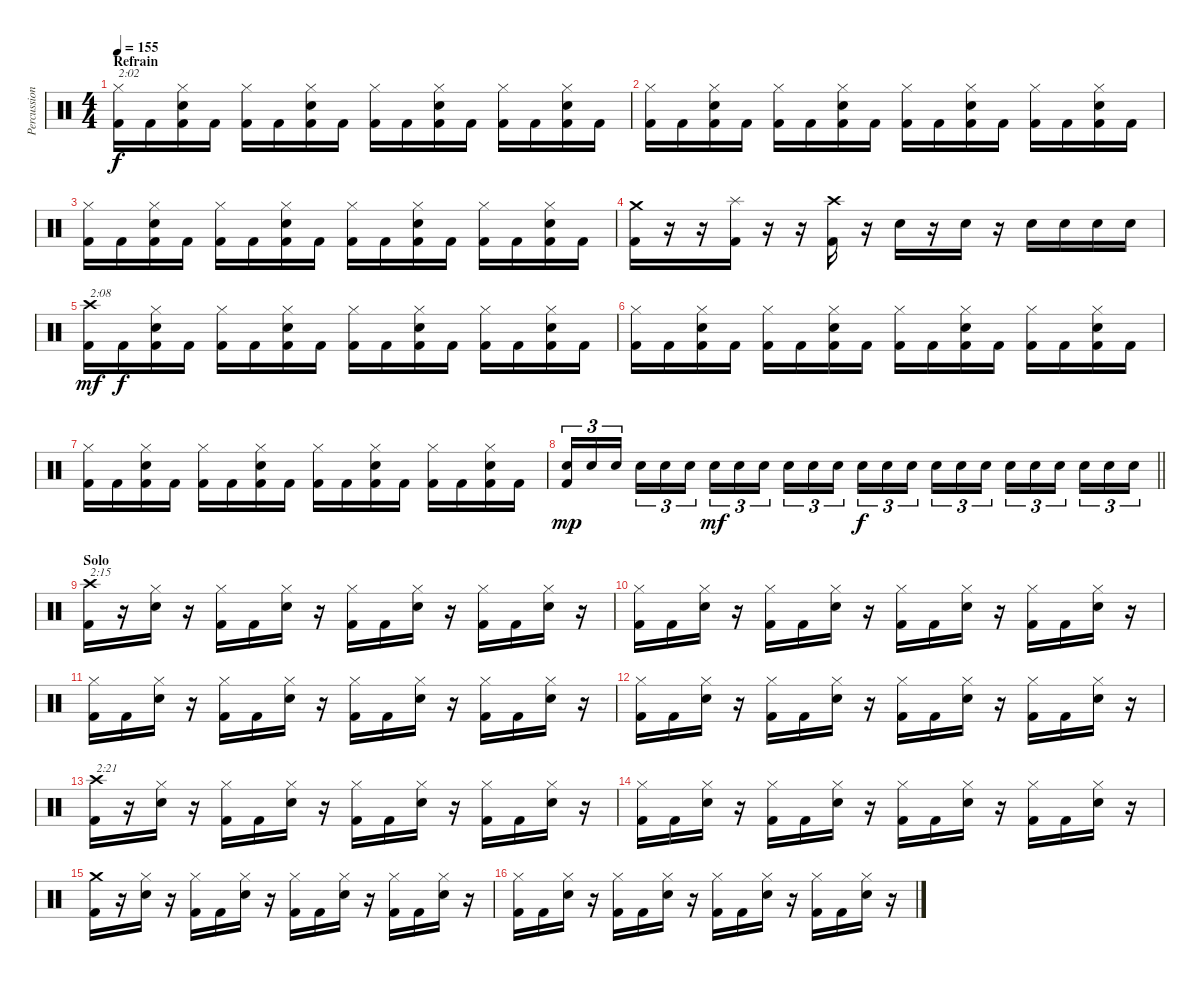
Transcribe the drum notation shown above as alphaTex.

\track ("Percussion" "Percussion") {instrument percussion}
\staff {score}
\articulation defaults
\ts (4 4)
\section ("" "Refrain")
\tempo 155
\clef neutral
\ks c
("Hi-Hat (closed)" "Kick (hit) 2").16{txt "2:02" dy f} "Kick (hit) 2".16 ("Hi-Hat (closed)" "Electric Snare (hit)" "Kick (hit) 2").16 "Kick (hit) 2".16 ("Hi-Hat (closed)" "Kick (hit) 2").16 "Kick (hit) 2".16 ("Hi-Hat (closed)" "Electric Snare (hit)" "Kick (hit) 2").16 "Kick (hit) 2".16 ("Hi-Hat (closed)" "Kick (hit) 2").16 "Kick (hit) 2".16 ("Hi-Hat (closed)" "Electric Snare (hit)" "Kick (hit) 2").16 "Kick (hit) 2".16 ("Hi-Hat (closed)" "Kick (hit) 2").16 "Kick (hit) 2".16 ("Hi-Hat (closed)" "Electric Snare (hit)" "Kick (hit) 2").16 "Kick (hit) 2".16 |
("Hi-Hat (closed)" "Kick (hit) 2").16 "Kick (hit) 2".16 ("Hi-Hat (closed)" "Electric Snare (hit)" "Kick (hit) 2").16 "Kick (hit) 2".16 ("Hi-Hat (closed)" "Kick (hit) 2").16 "Kick (hit) 2".16 ("Hi-Hat (closed)" "Electric Snare (hit)" "Kick (hit) 2").16 "Kick (hit) 2".16 ("Hi-Hat (closed)" "Kick (hit) 2").16 "Kick (hit) 2".16 ("Hi-Hat (closed)" "Electric Snare (hit)" "Kick (hit) 2").16 "Kick (hit) 2".16 ("Hi-Hat (closed)" "Kick (hit) 2").16 "Kick (hit) 2".16 ("Hi-Hat (closed)" "Electric Snare (hit)" "Kick (hit) 2").16 "Kick (hit) 2".16 |
("Hi-Hat (closed)" "Kick (hit) 2").16 "Kick (hit) 2".16 ("Hi-Hat (closed)" "Electric Snare (hit)" "Kick (hit) 2").16 "Kick (hit) 2".16 ("Hi-Hat (closed)" "Kick (hit) 2").16 "Kick (hit) 2".16 ("Hi-Hat (closed)" "Electric Snare (hit)" "Kick (hit) 2").16 "Kick (hit) 2".16 ("Hi-Hat (closed)" "Kick (hit) 2").16 "Kick (hit) 2".16 ("Hi-Hat (closed)" "Electric Snare (hit)" "Kick (hit) 2").16 "Kick (hit) 2".16 ("Hi-Hat (closed)" "Kick (hit) 2").16 "Kick (hit) 2".16 ("Hi-Hat (closed)" "Electric Snare (hit)" "Kick (hit) 2").16 "Kick (hit) 2".16 |
("Crash medium (hit)" "Kick (hit) 2").16 r.16 r.16 ("Splash (hit)" "Kick (hit) 2").16 r.16 r.16 ("Crash high (hit)" "Kick (hit) 2").16 r.16 "Electric Snare (hit)".16 r.16 "Electric Snare (hit)".16 r.16 "Electric Snare (hit)".16 "Electric Snare (hit)".16 "Electric Snare (hit)".16 "Electric Snare (hit)".16 |
("Crash high (hit)" "Kick (hit) 2").16{txt "2:08" dy mf} "Kick (hit) 2".16{dy f} ("Hi-Hat (closed)" "Electric Snare (hit)" "Kick (hit) 2").16 "Kick (hit) 2".16 ("Hi-Hat (closed)" "Kick (hit) 2").16 "Kick (hit) 2".16 ("Hi-Hat (closed)" "Electric Snare (hit)" "Kick (hit) 2").16 "Kick (hit) 2".16 ("Hi-Hat (closed)" "Kick (hit) 2").16 "Kick (hit) 2".16 ("Hi-Hat (closed)" "Electric Snare (hit)" "Kick (hit) 2").16 "Kick (hit) 2".16 ("Hi-Hat (closed)" "Kick (hit) 2").16 "Kick (hit) 2".16 ("Hi-Hat (closed)" "Electric Snare (hit)" "Kick (hit) 2").16 "Kick (hit) 2".16 |
("Hi-Hat (closed)" "Kick (hit) 2").16 "Kick (hit) 2".16 ("Hi-Hat (closed)" "Electric Snare (hit)" "Kick (hit) 2").16 "Kick (hit) 2".16 ("Hi-Hat (closed)" "Kick (hit) 2").16 "Kick (hit) 2".16 ("Hi-Hat (closed)" "Electric Snare (hit)" "Kick (hit) 2").16 "Kick (hit) 2".16 ("Hi-Hat (closed)" "Kick (hit) 2").16 "Kick (hit) 2".16 ("Hi-Hat (closed)" "Electric Snare (hit)" "Kick (hit) 2").16 "Kick (hit) 2".16 ("Hi-Hat (closed)" "Kick (hit) 2").16 "Kick (hit) 2".16 ("Hi-Hat (closed)" "Electric Snare (hit)" "Kick (hit) 2").16 "Kick (hit) 2".16 |
("Hi-Hat (closed)" "Kick (hit) 2").16 "Kick (hit) 2".16 ("Hi-Hat (closed)" "Electric Snare (hit)" "Kick (hit) 2").16 "Kick (hit) 2".16 ("Hi-Hat (closed)" "Kick (hit) 2").16 "Kick (hit) 2".16 ("Hi-Hat (closed)" "Electric Snare (hit)" "Kick (hit) 2").16 "Kick (hit) 2".16 ("Hi-Hat (closed)" "Kick (hit) 2").16 "Kick (hit) 2".16 ("Hi-Hat (closed)" "Electric Snare (hit)" "Kick (hit) 2").16 "Kick (hit) 2".16 ("Hi-Hat (closed)" "Kick (hit) 2").16 "Kick (hit) 2".16 ("Hi-Hat (closed)" "Electric Snare (hit)" "Kick (hit) 2").16 "Kick (hit) 2".16 |
\barLineRight lightlight
("Electric Snare (hit)" "Kick (hit) 2").16{tu (3 2) dy mp} "Electric Snare (hit)".16{tu (3 2)} "Electric Snare (hit)".16{tu (3 2) beam splitsecondary} "Electric Snare (hit)".16{tu (3 2)} "Electric Snare (hit)".16{tu (3 2)} "Electric Snare (hit)".16{tu (3 2)} "Electric Snare (hit)".16{tu (3 2) dy mf} "Electric Snare (hit)".16{tu (3 2)} "Electric Snare (hit)".16{tu (3 2) beam splitsecondary} "Electric Snare (hit)".16{tu (3 2)} "Electric Snare (hit)".16{tu (3 2)} "Electric Snare (hit)".16{tu (3 2)} "Electric Snare (hit)".16{tu (3 2) dy f} "Electric Snare (hit)".16{tu (3 2)} "Electric Snare (hit)".16{tu (3 2) beam splitsecondary} "Electric Snare (hit)".16{tu (3 2)} "Electric Snare (hit)".16{tu (3 2)} "Electric Snare (hit)".16{tu (3 2)} "Electric Snare (hit)".16{tu (3 2)} "Electric Snare (hit)".16{tu (3 2)} "Electric Snare (hit)".16{tu (3 2) beam splitsecondary} "Electric Snare (hit)".16{tu (3 2)} "Electric Snare (hit)".16{tu (3 2)} "Electric Snare (hit)".16{tu (3 2)} |
\section ("" "Solo")
("Crash high (hit)" "Kick (hit) 2").16{txt "2:15"} r.16 ("Hi-Hat (closed)" "Electric Snare (hit)").16 r.16 ("Hi-Hat (closed)" "Kick (hit) 2").16 "Kick (hit) 2".16 ("Hi-Hat (closed)" "Electric Snare (hit)").16 r.16 ("Hi-Hat (closed)" "Kick (hit) 2").16 "Kick (hit) 2".16 ("Hi-Hat (closed)" "Electric Snare (hit)").16 r.16 ("Hi-Hat (closed)" "Kick (hit) 2").16 "Kick (hit) 2".16 ("Hi-Hat (closed)" "Electric Snare (hit)").16 r.16 |
("Hi-Hat (closed)" "Kick (hit) 2").16 "Kick (hit) 2".16 ("Hi-Hat (closed)" "Electric Snare (hit)").16 r.16 ("Hi-Hat (closed)" "Kick (hit) 2").16 "Kick (hit) 2".16 ("Hi-Hat (closed)" "Electric Snare (hit)").16 r.16 ("Hi-Hat (closed)" "Kick (hit) 2").16 "Kick (hit) 2".16 ("Hi-Hat (closed)" "Electric Snare (hit)").16 r.16 ("Hi-Hat (closed)" "Kick (hit) 2").16 "Kick (hit) 2".16 ("Hi-Hat (closed)" "Electric Snare (hit)").16 r.16 |
("Hi-Hat (closed)" "Kick (hit) 2").16 "Kick (hit) 2".16 ("Hi-Hat (closed)" "Electric Snare (hit)").16 r.16 ("Hi-Hat (closed)" "Kick (hit) 2").16 "Kick (hit) 2".16 ("Hi-Hat (closed)" "Electric Snare (hit)").16 r.16 ("Hi-Hat (closed)" "Kick (hit) 2").16 "Kick (hit) 2".16 ("Hi-Hat (closed)" "Electric Snare (hit)").16 r.16 ("Hi-Hat (closed)" "Kick (hit) 2").16 "Kick (hit) 2".16 ("Hi-Hat (closed)" "Electric Snare (hit)").16 r.16 |
("Hi-Hat (closed)" "Kick (hit) 2").16 "Kick (hit) 2".16 ("Hi-Hat (closed)" "Electric Snare (hit)").16 r.16 ("Hi-Hat (closed)" "Kick (hit) 2").16 "Kick (hit) 2".16 ("Hi-Hat (closed)" "Electric Snare (hit)").16 r.16 ("Hi-Hat (closed)" "Kick (hit) 2").16 "Kick (hit) 2".16 ("Hi-Hat (closed)" "Electric Snare (hit)").16 r.16 ("Hi-Hat (closed)" "Kick (hit) 2").16 "Kick (hit) 2".16 ("Hi-Hat (closed)" "Electric Snare (hit)").16 r.16 |
("Crash high (hit)" "Kick (hit) 2").16{txt "2:21"} r.16 ("Hi-Hat (closed)" "Electric Snare (hit)").16 r.16 ("Hi-Hat (closed)" "Kick (hit) 2").16 "Kick (hit) 2".16 ("Hi-Hat (closed)" "Electric Snare (hit)").16 r.16 ("Hi-Hat (closed)" "Kick (hit) 2").16 "Kick (hit) 2".16 ("Hi-Hat (closed)" "Electric Snare (hit)").16 r.16 ("Hi-Hat (closed)" "Kick (hit) 2").16 "Kick (hit) 2".16 ("Hi-Hat (closed)" "Electric Snare (hit)").16 r.16 |
("Hi-Hat (closed)" "Kick (hit) 2").16 "Kick (hit) 2".16 ("Hi-Hat (closed)" "Electric Snare (hit)").16 r.16 ("Hi-Hat (closed)" "Kick (hit) 2").16 "Kick (hit) 2".16 ("Hi-Hat (closed)" "Electric Snare (hit)").16 r.16 ("Hi-Hat (closed)" "Kick (hit) 2").16 "Kick (hit) 2".16 ("Hi-Hat (closed)" "Electric Snare (hit)").16 r.16 ("Hi-Hat (closed)" "Kick (hit) 2").16 "Kick (hit) 2".16 ("Hi-Hat (closed)" "Electric Snare (hit)").16 r.16 |
("Crash medium (hit)" "Kick (hit) 2").16 r.16 ("Hi-Hat (closed)" "Electric Snare (hit)").16 r.16 ("Hi-Hat (closed)" "Kick (hit) 2").16 "Kick (hit) 2".16 ("Hi-Hat (closed)" "Electric Snare (hit)").16 r.16 ("Hi-Hat (closed)" "Kick (hit) 2").16 "Kick (hit) 2".16 ("Hi-Hat (closed)" "Electric Snare (hit)").16 r.16 ("Hi-Hat (closed)" "Kick (hit) 2").16 "Kick (hit) 2".16 ("Hi-Hat (closed)" "Electric Snare (hit)").16 r.16 |
("Hi-Hat (closed)" "Kick (hit) 2").16 "Kick (hit) 2".16 ("Hi-Hat (closed)" "Electric Snare (hit)").16 r.16 ("Hi-Hat (closed)" "Kick (hit) 2").16 "Kick (hit) 2".16 ("Hi-Hat (closed)" "Electric Snare (hit)").16 r.16 ("Hi-Hat (closed)" "Kick (hit) 2").16 "Kick (hit) 2".16 ("Hi-Hat (closed)" "Electric Snare (hit)").16 r.16 ("Hi-Hat (closed)" "Kick (hit) 2").16 "Kick (hit) 2".16 ("Hi-Hat (closed)" "Electric Snare (hit)").16 r.16
